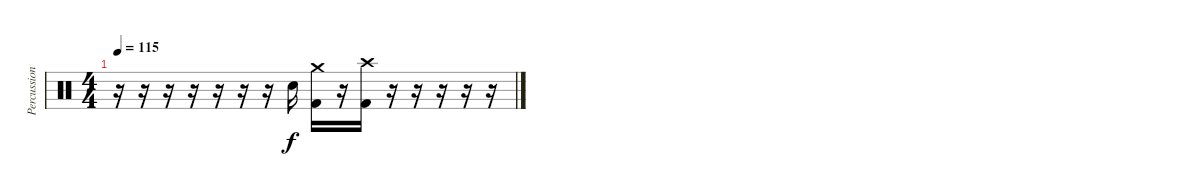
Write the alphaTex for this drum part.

\track ("Percussion" "Percussion") {instrument percussion}
\staff {score}
\articulation defaults
\ts (4 4)
\tempo 115
\clef neutral
\ks c
r.16{dy f} r.16 r.16 r.16 r.16 r.16 r.16 "Electric Snare (hit)".16 ("Crash medium (hit)" "Kick (hit) 2").16 r.16 ("Crash high (hit)" "Kick (hit) 2").16 r.16 r.16{volume 0} r.16 r.16 r.16
